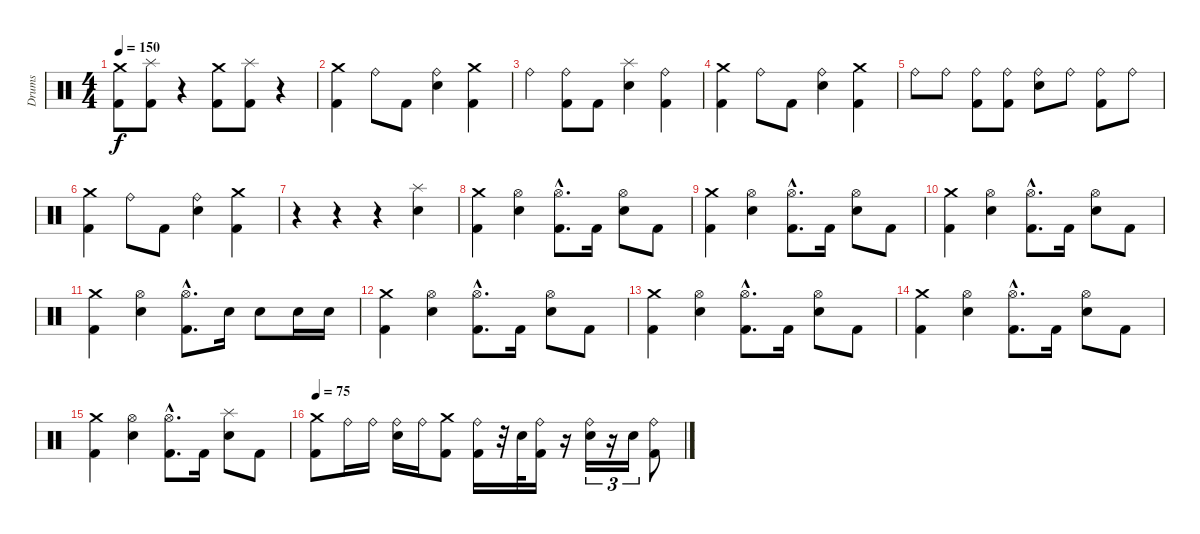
\track ("Drums" "Drums") {instrument percussion}
\staff {score}
\articulation defaults
\ts (4 4)
\tempo 150
\clef neutral
\ks c
("Crash medium (hit)" "Kick (hit) 2").8{dy f} ("Splash (hit)" "Kick (hit) 2").8 r.4 ("Crash medium (hit)" "Kick (hit) 2").8 ("Splash (hit)" "Kick (hit) 2").8 r.4 |
("Crash medium (hit)" "Kick (hit) 2").4 "Ride (bell)".8 "Kick (hit) 2".8 ("Ride (bell)" "Electric Snare (hit)").4 ("Crash medium (hit)" "Kick (hit) 2").4 |
"Ride (bell)".4 ("Ride (bell)" "Kick (hit) 2").8 "Kick (hit) 2".8 ("Splash (hit)" "Electric Snare (hit)").4 ("Ride (bell)" "Kick (hit) 2").4 |
("Crash medium (hit)" "Kick (hit) 2").4 "Ride (bell)".8 "Kick (hit) 2".8 ("Ride (bell)" "Electric Snare (hit)").4 ("Crash medium (hit)" "Kick (hit) 2").4 |
"Ride (bell)".8 "Ride (bell)".8 ("Ride (bell)" "Kick (hit) 2").8 ("Ride (bell)" "Kick (hit) 2").8 ("Ride (bell)" "Electric Snare (hit)").8 "Ride (bell)".8 ("Ride (bell)" "Kick (hit) 2").8 "Ride (bell)".8 |
("Crash medium (hit)" "Kick (hit) 2").4 "Ride (bell)".8 "Kick (hit) 2".8 ("Ride (bell)" "Electric Snare (hit)").4 ("Crash medium (hit)" "Kick (hit) 2").4 |
r.4 r.4 r.4 ("Splash (hit)" "Electric Snare (hit)").4 |
("Crash medium (hit)" "Kick (hit) 2").4 ("Hi-Hat (open)" "Electric Snare (hit)").4 ("Hi-Hat (open)"{hac} "Kick (hit) 2"{hac}).8{d} "Kick (hit) 2".16 ("Hi-Hat (open)" "Electric Snare (hit)").8 "Kick (hit) 2".8 |
("Crash medium (hit)" "Kick (hit) 2").4 ("Hi-Hat (open)" "Electric Snare (hit)").4 ("Hi-Hat (open)"{hac} "Kick (hit) 2"{hac}).8{d} "Kick (hit) 2".16 ("Hi-Hat (open)" "Electric Snare (hit)").8 "Kick (hit) 2".8 |
("Crash medium (hit)" "Kick (hit) 2").4 ("Hi-Hat (open)" "Electric Snare (hit)").4 ("Hi-Hat (open)"{hac} "Kick (hit) 2"{hac}).8{d} "Kick (hit) 2".16 ("Hi-Hat (open)" "Electric Snare (hit)").8 "Kick (hit) 2".8 |
("Crash medium (hit)" "Kick (hit) 2").4 ("Hi-Hat (open)" "Electric Snare (hit)").4 ("Hi-Hat (open)"{hac} "Kick (hit) 2"{hac}).8{d} "Electric Snare (hit)".16 "Electric Snare (hit)".8 "Electric Snare (hit)".16 "Electric Snare (hit)".16 |
("Crash medium (hit)" "Kick (hit) 2").4 ("Hi-Hat (open)" "Electric Snare (hit)").4 ("Hi-Hat (open)"{hac} "Kick (hit) 2"{hac}).8{d} "Kick (hit) 2".16 ("Hi-Hat (open)" "Electric Snare (hit)").8 "Kick (hit) 2".8 |
("Crash medium (hit)" "Kick (hit) 2").4 ("Hi-Hat (open)" "Electric Snare (hit)").4 ("Hi-Hat (open)"{hac} "Kick (hit) 2"{hac}).8{d} "Kick (hit) 2".16 ("Hi-Hat (open)" "Electric Snare (hit)").8 "Kick (hit) 2".8 |
("Crash medium (hit)" "Kick (hit) 2").4 ("Hi-Hat (open)" "Electric Snare (hit)").4 ("Hi-Hat (open)"{hac} "Kick (hit) 2"{hac}).8{d} "Kick (hit) 2".16 ("Hi-Hat (open)" "Electric Snare (hit)").8 "Kick (hit) 2".8 |
("Crash medium (hit)" "Kick (hit) 2").4 ("Hi-Hat (open)" "Electric Snare (hit)").4 ("Hi-Hat (open)"{hac} "Kick (hit) 2"{hac}).8{d} "Kick (hit) 2".16 ("Splash (hit)" "Electric Snare (hit)").8 "Kick (hit) 2".8 |
\tempo 75
("Crash medium (hit)" "Kick (hit) 2").8 "Ride (bell)".16 "Ride (bell)".16 ("Ride (bell)" "Electric Snare (hit)").16 "Ride (bell)".16 ("Crash medium (hit)" "Kick (hit) 2").8 ("Ride (bell)" "Kick (hit) 2").16 r.32 "Electric Snare (hit)".32 ("Ride (bell)" "Kick (hit) 2").16 r.16 ("Ride (bell)" "Electric Snare (hit)").16{tu (3 2)} r.16{tu (3 2)} "Electric Snare (hit)".16{tu (3 2)} ("Ride (bell)" "Kick (hit) 2").8
